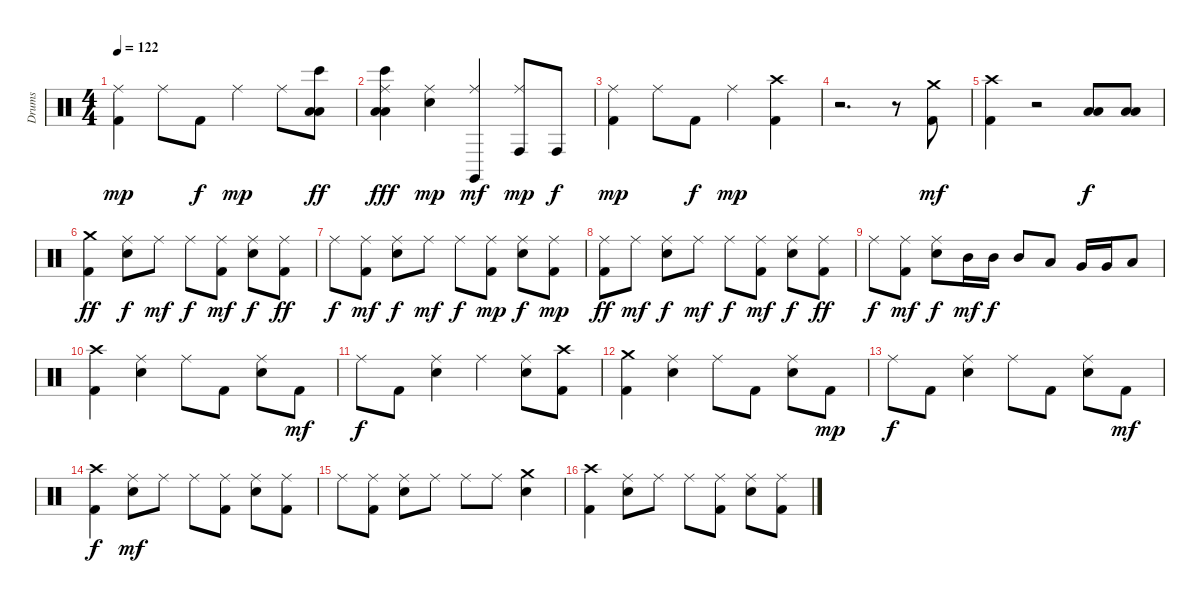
\track ("Drums" "Drums") {instrument percussion}
\staff {score}
\articulation defaults
\ts (4 4)
\tempo 122
\clef neutral
\ks c
("Ride (middle)" "Kick (hit) 2").4{dy mp} "Ride (middle)".8 "Kick (hit) 2".8{dy f} "Ride (middle)".4{dy mp} "Ride (middle)".8 ("Low Floor Tom (hit)" "Low Floor Tom (hit)" "Bongo High (hit)").8{dy ff} |
("Low Floor Tom (hit)" "Low Floor Tom (hit)" "Ride (middle)" "Bongo High (hit)").4{dy fff} ("Snare (hit) 2" "Ride (middle)").4{dy mp} ("Ride (middle)" "Claves (hit)").4{dy mf} ("Ride (middle)" "Conga high (hit)").8{dy mp} "Conga high (hit)".8{dy f} |
("Ride (middle)" "Kick (hit) 2").4{dy mp} "Ride (middle)".8 "Kick (hit) 2".8{dy f} "Ride (middle)".4{dy mp} ("Kick (hit) 2" "Crash high (hit)").4 |
r.2{d} r.8 ("Crash medium (hit)" "Kick (hit) 2").8{dy mf} |
("Crash high (hit)" "Kick (hit) 2").4 r.2 ("Low Floor Tom (hit)" "Low Floor Tom (hit)").8{dy f} ("Low Floor Tom (hit)" "Low Floor Tom (hit)").8 |
("Crash medium (hit)" "Kick (hit) 2").4{dy ff} ("Ride (middle)" "Snare (hit) 2").8{dy f} "Ride (middle)".8{dy mf} "Ride (middle)".8{dy f} ("Ride (middle)" "Kick (hit) 2").8{dy mf} ("Ride (middle)" "Snare (hit) 2").8{dy f} ("Ride (middle)" "Kick (hit) 2").8{dy ff} |
"Ride (middle)".8{dy f} ("Ride (middle)" "Kick (hit) 2").8{dy mf} ("Ride (middle)" "Snare (hit) 2").8{dy f} "Ride (middle)".8{dy mf} "Ride (middle)".8{dy f} ("Ride (middle)" "Kick (hit) 2").8{dy mp} ("Ride (middle)" "Snare (hit) 2").8{dy f} ("Ride (middle)" "Kick (hit) 2").8{dy mp} |
("Ride (middle)" "Kick (hit) 2").8{dy ff} "Ride (middle)".8{dy mf} ("Ride (middle)" "Snare (hit) 2").8{dy f} "Ride (middle)".8{dy mf} "Ride (middle)".8{dy f} ("Ride (middle)" "Kick (hit) 2").8{dy mf} ("Ride (middle)" "Snare (hit) 2").8{dy f} ("Ride (middle)" "Kick (hit) 2").8{dy ff} |
"Ride (middle)".8{dy f} ("Ride (middle)" "Kick (hit) 2").8{dy mf} ("Ride (middle)" "Snare (hit) 2").8{dy f} "Mid Tom (hit)".16{dy mf} "Mid Tom (hit)".16{dy f} "Mid Tom (hit)".8 "Low Tom (hit)".8 "Very Low Tom (hit)".16 "Very Low Tom (hit)".16 "Low Floor Tom (hit)".8 |
("Crash high (hit)" "Kick (hit) 2").4 ("Ride (middle)" "Snare (hit) 2").4 "Ride (middle)".8 "Kick (hit) 2".8 ("Ride (middle)" "Snare (hit) 2").8 "Kick (hit) 2".8{dy mf} |
"Ride (middle)".8{dy f} "Kick (hit) 2".8 ("Ride (middle)" "Snare (hit) 2").4 "Ride (middle)".4 ("Ride (middle)" "Snare (hit) 2").8 ("Crash high (hit)" "Kick (hit) 2").8 |
("Crash medium (hit)" "Kick (hit) 2").4 ("Ride (middle)" "Snare (hit) 2").4 "Ride (middle)".8 "Kick (hit) 2".8 ("Ride (middle)" "Snare (hit) 2").8 "Kick (hit) 2".8{dy mp} |
"Ride (middle)".8{dy f} "Kick (hit) 2".8 ("Ride (middle)" "Snare (hit) 2").4 "Ride (middle)".8 "Kick (hit) 2".8 ("Ride (middle)" "Snare (hit) 2").8 "Kick (hit) 2".8{dy mf} |
("Crash high (hit)" "Kick (hit) 2").4{dy f} ("Ride (middle)" "Snare (hit) 2").8{dy mf} "Ride (middle)".8 "Ride (middle)".8 ("Ride (middle)" "Kick (hit) 2").8 ("Ride (middle)" "Snare (hit) 2").8 ("Ride (middle)" "Kick (hit) 2").8 |
"Ride (middle)".8 ("Ride (middle)" "Kick (hit) 2").8 ("Ride (middle)" "Snare (hit) 2").8 "Ride (middle)".8 "Ride (middle)".8 "Ride (middle)".8 ("Crash medium (hit)" "Snare (hit) 2").4 |
("Kick (hit) 2" "Crash high (hit)").4 ("Ride (middle)" "Snare (hit) 2").8 "Ride (middle)".8 "Ride (middle)".8 ("Ride (middle)" "Kick (hit) 2").8 ("Ride (middle)" "Snare (hit) 2").8 ("Ride (middle)" "Kick (hit) 2").8
